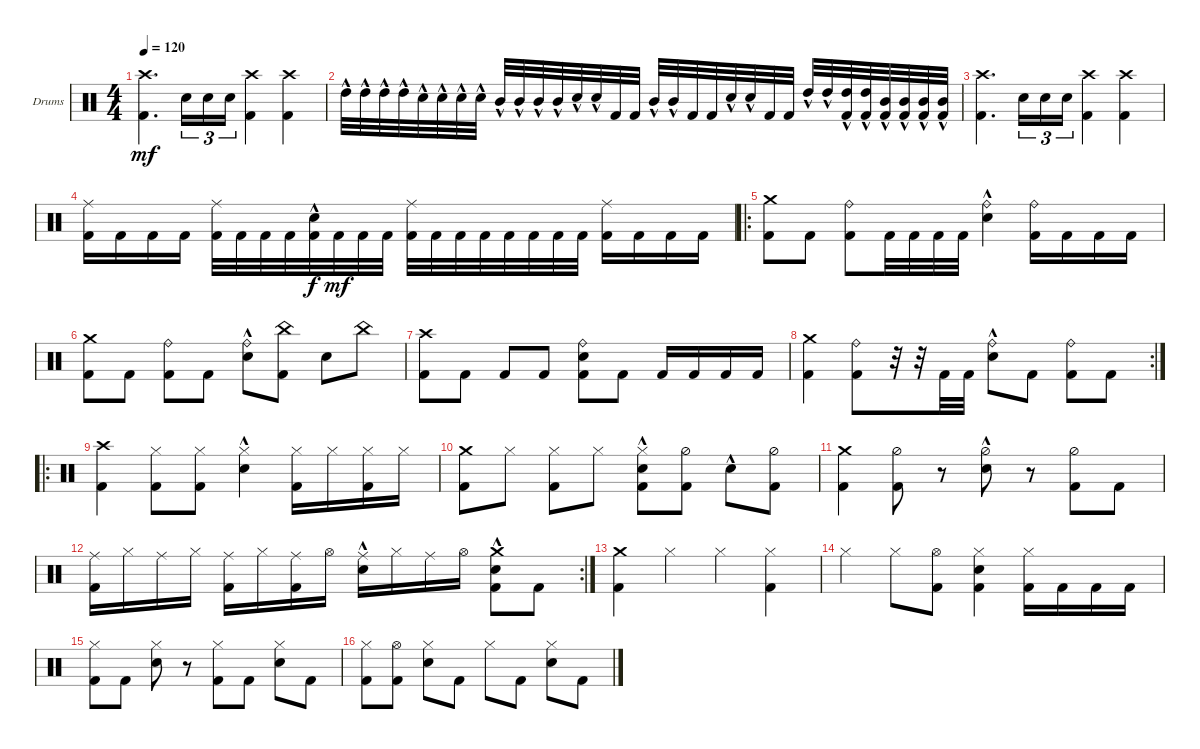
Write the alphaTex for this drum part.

\defaultSystemsLayout 4
\bracketExtendMode groupsimilarinstruments
\firstSystemTrackNameOrientation horizontal
\otherSystemsTrackNameOrientation horizontal
\track ("Drumkit" "Drums") {instrument percussion}
\staff {score}
\articulation defaults
\ts (4 4)
\tempo 120
\clef neutral
\ks c
("Crash high (hit)" "Kick (hit) 2").4{d dy mf} "Snare (hit) 2".16{tu (3 2)} "Snare (hit) 2".16{tu (3 2)} "Snare (hit) 2".16{tu (3 2)} ("Crash high (hit)" "Kick (hit) 2").4 ("Crash high (hit)" "Kick (hit) 2").4 |
"High Tom (hit)"{hac}.32 "High Tom (hit)"{hac}.32 "High Tom (hit)"{hac}.32 "High Tom (hit)"{hac}.32 "Snare (hit) 2"{hac}.32 "Snare (hit) 2"{hac}.32 "Snare (hit) 2"{hac}.32 "Snare (hit) 2"{hac}.32 "Mid Tom (hit)"{hac}.32 "Mid Tom (hit)"{hac}.32 "Mid Tom (hit)"{hac}.32 "Mid Tom (hit)"{hac}.32 "Snare (hit) 2"{hac}.32 "Snare (hit) 2"{hac}.32 "Kick (hit) 2".32 "Kick (hit) 2".32 "Mid Tom (hit)"{hac}.32 "Mid Tom (hit)"{hac}.32 "Kick (hit) 2".32 "Kick (hit) 2".32 "Snare (hit) 2"{hac}.32 "Snare (hit) 2"{hac}.32 "Kick (hit) 2".32 "Kick (hit) 2".32 "High Tom (hit)"{hac}.32 "High Tom (hit)"{hac}.32 ("Kick (hit) 2" "High Tom (hit)"{hac}).32 ("Kick (hit) 2" "High Tom (hit)"{hac}).32 ("Kick (hit) 2" "Mid Tom (hit)"{hac}).32 ("Kick (hit) 2" "Mid Tom (hit)"{hac}).32 ("Kick (hit) 2" "Mid Tom (hit)"{hac}).32 ("Kick (hit) 2" "Mid Tom (hit)"{hac}).32 |
("Crash high (hit)" "Kick (hit) 2").4{d} "Snare (hit) 2".16{tu (3 2)} "Snare (hit) 2".16{tu (3 2)} "Snare (hit) 2".16{tu (3 2)} ("Crash high (hit)" "Kick (hit) 2").4 ("Crash high (hit)" "Kick (hit) 2").4 |
("Kick (hit) 2" "Ride (middle)").16 "Kick (hit) 2".16 "Kick (hit) 2".16 "Kick (hit) 2".16 ("Kick (hit) 2" "Ride (middle)").32 "Kick (hit) 2".32 "Kick (hit) 2".32 "Kick (hit) 2".32 ("Kick (hit) 2" "Snare (hit) 2"{hac}).32{dy f} "Kick (hit) 2".32{dy mf} "Kick (hit) 2".32 "Kick (hit) 2".32 ("Kick (hit) 2" "Ride (middle)").32 "Kick (hit) 2".32 "Kick (hit) 2".32 "Kick (hit) 2".32 "Kick (hit) 2".32 "Kick (hit) 2".32 "Kick (hit) 2".32 "Kick (hit) 2".32 ("Kick (hit) 2" "Ride (middle)").16 "Kick (hit) 2".16 "Kick (hit) 2".16 "Kick (hit) 2".16 |
\ro
("Crash medium (hit)" "Kick (hit) 2").8 "Kick (hit) 2".8 ("Kick (hit) 2" "Ride (bell)").8 "Kick (hit) 2".32 "Kick (hit) 2".32 "Kick (hit) 2".32 "Kick (hit) 2".32 ("Ride (bell)" "Snare (hit) 2"{hac}).4 ("Kick (hit) 2" "Ride (bell)").16 "Kick (hit) 2".16 "Kick (hit) 2".16 "Kick (hit) 2".16 |
("Kick (hit) 2" "Crash medium (hit)").8 "Kick (hit) 2".8 ("Kick (hit) 2" "Ride (bell)").8 "Kick (hit) 2".8 ("Ride (bell)" "Snare (hit) 2"{hac}).8 ("China (hit)" "Kick (hit) 2").8 "Snare (hit) 2".8 "China (hit)".8 |
("Crash high (hit)" "Kick (hit) 2").8 "Kick (hit) 2".8 "Kick (hit) 2".8 "Kick (hit) 2".8 ("Ride (bell)" "Snare (hit) 2" "Kick (hit) 2").8 "Kick (hit) 2".8 "Kick (hit) 2".16 "Kick (hit) 2".16 "Kick (hit) 2".16 "Kick (hit) 2".16 |
\rc 2
("Crash medium (hit)" "Kick (hit) 2").4 ("Kick (hit) 2" "Ride (bell)").8 r.32 r.32 "Kick (hit) 2".32 "Kick (hit) 2".32 ("Ride (bell)" "Snare (hit) 2"{hac}).8 "Kick (hit) 2".8 ("Kick (hit) 2" "Ride (bell)").8 "Kick (hit) 2".8 |
\ro
("Crash high (hit)" "Kick (hit) 2").4 ("Hi-Hat (closed)" "Kick (hit) 2").8 ("Hi-Hat (closed)" "Kick (hit) 2").8 ("Snare (hit) 2"{hac} "Hi-Hat (closed)").4 ("Hi-Hat (closed)" "Kick (hit) 2").16 "Hi-Hat (closed)".16 ("Hi-Hat (closed)" "Kick (hit) 2").16 "Hi-Hat (closed)".16 |
("Crash medium (hit)" "Kick (hit) 2").8 "Hi-Hat (closed)".8 ("Kick (hit) 2" "Hi-Hat (closed)").8 "Hi-Hat (closed)".8 ("Snare (hit) 2"{hac} "Hi-Hat (closed)" "Kick (hit) 2").8 ("Hi-Hat (half)" "Kick (hit) 2").8 "Snare (hit) 2"{hac}.8 ("Hi-Hat (half)" "Kick (hit) 2").8 |
("Crash medium (hit)" "Kick (hit) 2").4 ("Hi-Hat (half)" "Kick (hit) 2").8 r.8 ("Hi-Hat (half)" "Snare (hit) 2"{hac}).8 r.8 ("Kick (hit) 2" "Hi-Hat (half)").8 "Kick (hit) 2".8 |
\rc 2
("Ride (middle)" "Kick (hit) 2").16 "Hi-Hat (closed)".16 "Ride (middle)".16 "Hi-Hat (closed)".16 ("Ride (middle)" "Kick (hit) 2").16 "Hi-Hat (closed)".16 ("Ride (middle)" "Kick (hit) 2").16 "Hi-Hat (open)".16 ("Ride (middle)" "Snare (hit) 2"{hac}).16 "Hi-Hat (closed)".16 "Ride (middle)".16 "Hi-Hat (open)".16 ("Crash medium (hit)"{hac} "Kick (hit) 2" "Snare (hit) 2").8 "Kick (hit) 2".8 |
("Crash medium (hit)" "Kick (hit) 2").4 "Hi-Hat (closed)".4 "Hi-Hat (closed)".4 ("Hi-Hat (closed)" "Kick (hit) 2").4 |
"Hi-Hat (closed)".4 "Hi-Hat (closed)".8 ("Hi-Hat (open)" "Kick (hit) 2").8 ("Hi-Hat (closed)" "Snare (hit) 2" "Kick (hit) 2").4 ("Hi-Hat (closed)" "Kick (hit) 2").16 "Kick (hit) 2".16 "Kick (hit) 2".16 "Kick (hit) 2".16 |
("Hi-Hat (closed)" "Kick (hit) 2").8 "Kick (hit) 2".8 ("Snare (hit) 2" "Hi-Hat (closed)").8 r.8 ("Hi-Hat (closed)" "Kick (hit) 2").8 "Kick (hit) 2".8 ("Hi-Hat (closed)" "Snare (hit) 2").8 "Kick (hit) 2".8 |
("Kick (hit) 2" "Hi-Hat (closed)").8 ("Kick (hit) 2" "Hi-Hat (open)").8 ("Snare (hit) 2" "Hi-Hat (closed)").8 "Kick (hit) 2".8 "Hi-Hat (closed)".8 "Kick (hit) 2".8 ("Hi-Hat (closed)" "Snare (hit) 2").8 "Kick (hit) 2".8
